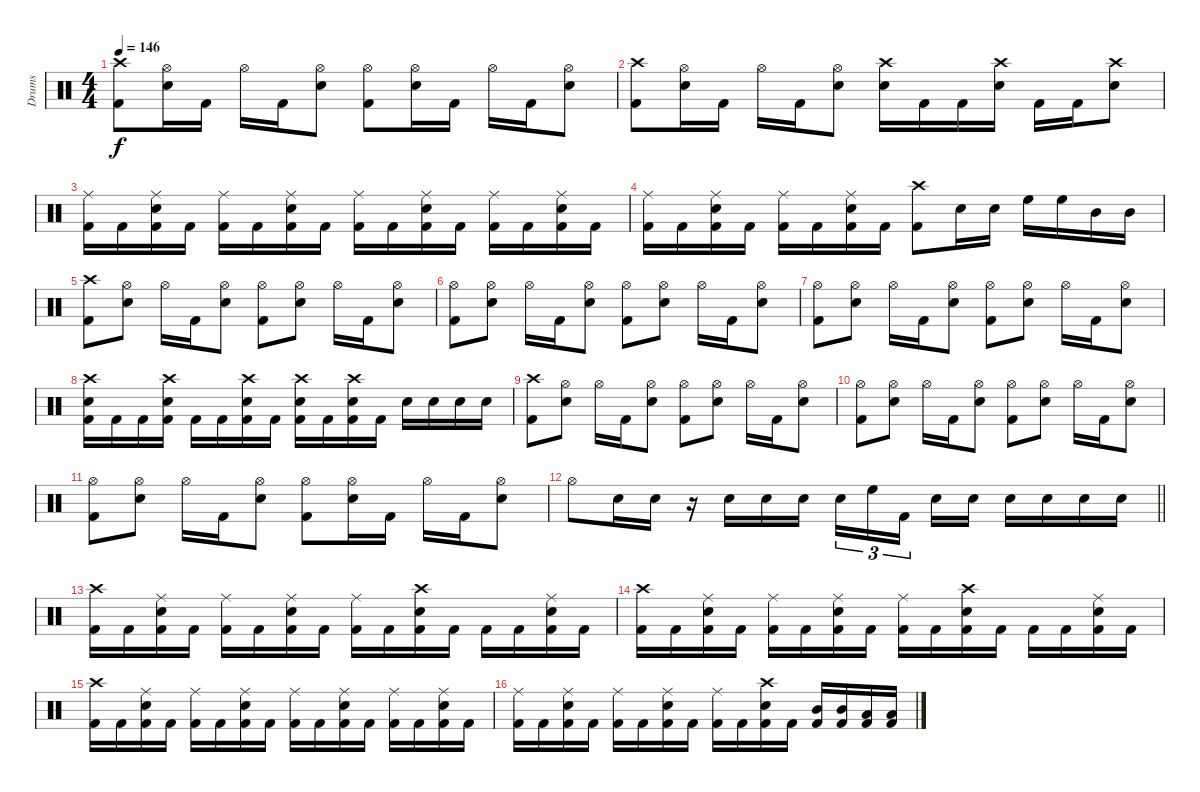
\track ("Drums" "Drums") {instrument percussion}
\staff {score}
\articulation defaults
\ts (4 4)
\tempo 146
\clef neutral
\ks c
("Crash high (hit)" "Kick (hit) 2").8{dy f} ("Hi-Hat (open)" "Snare (hit) 2").16 "Kick (hit) 2".16 "Hi-Hat (open)".16 "Kick (hit) 2".16 ("Hi-Hat (open)" "Snare (hit) 2").8 ("Hi-Hat (open)" "Kick (hit) 2").8 ("Hi-Hat (open)" "Snare (hit) 2").16 "Kick (hit) 2".16 "Hi-Hat (open)".16 "Kick (hit) 2".16 ("Hi-Hat (open)" "Snare (hit) 2").8 |
("Crash high (hit)" "Kick (hit) 2").8 ("Hi-Hat (open)" "Snare (hit) 2").16 "Kick (hit) 2".16 "Hi-Hat (open)".16 "Kick (hit) 2".16 ("Hi-Hat (open)" "Snare (hit) 2").8 ("Crash high (hit)" "Snare (hit) 2").16 "Kick (hit) 2".16 "Kick (hit) 2".16 ("Crash high (hit)" "Snare (hit) 2").16 "Kick (hit) 2".16 "Kick (hit) 2".16 ("Crash high (hit)" "Snare (hit) 2").8 |
("Ride (middle)" "Kick (hit) 2").16 "Kick (hit) 2".16 ("Ride (middle)" "Snare (hit) 2" "Kick (hit) 2").16 "Kick (hit) 2".16 ("Ride (middle)" "Kick (hit) 2").16 "Kick (hit) 2".16 ("Ride (middle)" "Snare (hit) 2" "Kick (hit) 2").16 "Kick (hit) 2".16 ("Ride (middle)" "Kick (hit) 2").16 "Kick (hit) 2".16 ("Ride (middle)" "Snare (hit) 2" "Kick (hit) 2").16 "Kick (hit) 2".16 ("Ride (middle)" "Kick (hit) 2").16 "Kick (hit) 2".16 ("Ride (middle)" "Snare (hit) 2" "Kick (hit) 2").16 "Kick (hit) 2".16 |
("Ride (middle)" "Kick (hit) 2").16 "Kick (hit) 2".16 ("Ride (middle)" "Snare (hit) 2" "Kick (hit) 2").16 "Kick (hit) 2".16 ("Ride (middle)" "Kick (hit) 2").16 "Kick (hit) 2".16 ("Ride (middle)" "Snare (hit) 2" "Kick (hit) 2").16 "Kick (hit) 2".16 ("Crash high (hit)" "Kick (hit) 2").8 "Snare (hit) 2".16 "Snare (hit) 2".16 "High Floor Tom (hit)".16 "High Floor Tom (hit)".16 "Mid Tom (hit)".16 "Mid Tom (hit)".16 |
("Crash high (hit)" "Kick (hit) 2").8 ("Hi-Hat (open)" "Snare (hit) 2").8 "Hi-Hat (open)".16 "Kick (hit) 2".16 ("Hi-Hat (open)" "Snare (hit) 2").8 ("Hi-Hat (open)" "Kick (hit) 2").8 ("Hi-Hat (open)" "Snare (hit) 2").8 "Hi-Hat (open)".16 "Kick (hit) 2".16 ("Hi-Hat (open)" "Snare (hit) 2").8 |
("Hi-Hat (open)" "Kick (hit) 2").8 ("Hi-Hat (open)" "Snare (hit) 2").8 "Hi-Hat (open)".16 "Kick (hit) 2".16 ("Hi-Hat (open)" "Snare (hit) 2").8 ("Hi-Hat (open)" "Kick (hit) 2").8 ("Hi-Hat (open)" "Snare (hit) 2").8 "Hi-Hat (open)".16 "Kick (hit) 2".16 ("Hi-Hat (open)" "Snare (hit) 2").8 |
("Hi-Hat (open)" "Kick (hit) 2").8 ("Hi-Hat (open)" "Snare (hit) 2").8 "Hi-Hat (open)".16 "Kick (hit) 2".16 ("Hi-Hat (open)" "Snare (hit) 2").8 ("Hi-Hat (open)" "Kick (hit) 2").8 ("Hi-Hat (open)" "Snare (hit) 2").8 "Hi-Hat (open)".16 "Kick (hit) 2".16 ("Hi-Hat (open)" "Snare (hit) 2").8 |
("Crash high (hit)" "Snare (hit) 2" "Kick (hit) 2").16 "Kick (hit) 2".16 "Kick (hit) 2".16 ("Crash high (hit)" "Snare (hit) 2" "Kick (hit) 2").16 "Kick (hit) 2".16 "Kick (hit) 2".16 ("Crash high (hit)" "Snare (hit) 2" "Kick (hit) 2").16 "Kick (hit) 2".16 ("Crash high (hit)" "Snare (hit) 2" "Kick (hit) 2").16 "Kick (hit) 2".16 ("Crash high (hit)" "Snare (hit) 2" "Kick (hit) 2").16 "Kick (hit) 2".16 "Snare (hit) 2".16 "Snare (hit) 2".16 "Snare (hit) 2".16 "Snare (hit) 2".16 |
("Crash high (hit)" "Kick (hit) 2").8 ("Hi-Hat (open)" "Snare (hit) 2").8 "Hi-Hat (open)".16 "Kick (hit) 2".16 ("Hi-Hat (open)" "Snare (hit) 2").8 ("Hi-Hat (open)" "Kick (hit) 2").8 ("Hi-Hat (open)" "Snare (hit) 2").8 "Hi-Hat (open)".16 "Kick (hit) 2".16 ("Hi-Hat (open)" "Snare (hit) 2").8 |
("Hi-Hat (open)" "Kick (hit) 2").8 ("Hi-Hat (open)" "Snare (hit) 2").8 "Hi-Hat (open)".16 "Kick (hit) 2".16 ("Hi-Hat (open)" "Snare (hit) 2").8 ("Hi-Hat (open)" "Kick (hit) 2").8 ("Hi-Hat (open)" "Snare (hit) 2").8 "Hi-Hat (open)".16 "Kick (hit) 2".16 ("Hi-Hat (open)" "Snare (hit) 2").8 |
("Hi-Hat (open)" "Kick (hit) 2").8 ("Hi-Hat (open)" "Snare (hit) 2").8 "Hi-Hat (open)".16 "Kick (hit) 2".16 ("Hi-Hat (open)" "Snare (hit) 2").8 ("Hi-Hat (open)" "Kick (hit) 2").8 ("Hi-Hat (open)" "Snare (hit) 2").16 "Kick (hit) 2".16 "Hi-Hat (open)".16 "Kick (hit) 2".16 ("Hi-Hat (open)" "Snare (hit) 2").8 |
\barLineRight lightlight "Hi-Hat (open)".8 "Snare (hit) 2".16 "Snare (hit) 2".16
r.16 "Snare (hit) 2".16 "Snare (hit) 2".16 "Snare (hit) 2".16 "Snare (hit) 2".16{tu (3 2)} "High Floor Tom (hit)".16{tu (3 2)} "Kick (hit) 2".16{tu (3 2)} "Snare (hit) 2".16 "Snare (hit) 2".16 "Snare (hit) 2".16 "Snare (hit) 2".16 "Snare (hit) 2".16 "Snare (hit) 2".16 |
("Crash high (hit)" "Kick (hit) 2").16 "Kick (hit) 2".16 ("Ride (middle)" "Snare (hit) 2" "Kick (hit) 2").16 "Kick (hit) 2".16 ("Ride (middle)" "Kick (hit) 2").16 "Kick (hit) 2".16 ("Ride (middle)" "Snare (hit) 2" "Kick (hit) 2").16 "Kick (hit) 2".16 ("Ride (middle)" "Kick (hit) 2").16 "Kick (hit) 2".16 ("Crash high (hit)" "Snare (hit) 2" "Kick (hit) 2").16 "Kick (hit) 2".16 "Kick (hit) 2".16 "Kick (hit) 2".16 ("Ride (middle)" "Snare (hit) 2" "Kick (hit) 2").16 "Kick (hit) 2".16 |
("Crash high (hit)" "Kick (hit) 2").16 "Kick (hit) 2".16 ("Ride (middle)" "Snare (hit) 2" "Kick (hit) 2").16 "Kick (hit) 2".16 ("Ride (middle)" "Kick (hit) 2").16 "Kick (hit) 2".16 ("Ride (middle)" "Snare (hit) 2" "Kick (hit) 2").16 "Kick (hit) 2".16 ("Ride (middle)" "Kick (hit) 2").16 "Kick (hit) 2".16 ("Crash high (hit)" "Snare (hit) 2" "Kick (hit) 2").16 "Kick (hit) 2".16 "Kick (hit) 2".16 "Kick (hit) 2".16 ("Ride (middle)" "Snare (hit) 2" "Kick (hit) 2").16 "Kick (hit) 2".16 |
("Crash high (hit)" "Kick (hit) 2").16 "Kick (hit) 2".16 ("Ride (middle)" "Snare (hit) 2" "Kick (hit) 2").16 "Kick (hit) 2".16 ("Ride (middle)" "Kick (hit) 2").16 "Kick (hit) 2".16 ("Ride (middle)" "Snare (hit) 2" "Kick (hit) 2").16 "Kick (hit) 2".16 ("Ride (middle)" "Kick (hit) 2").16 "Kick (hit) 2".16 ("Ride (middle)" "Snare (hit) 2" "Kick (hit) 2").16 "Kick (hit) 2".16 ("Ride (middle)" "Kick (hit) 2").16 "Kick (hit) 2".16 ("Ride (middle)" "Snare (hit) 2" "Kick (hit) 2").16 "Kick (hit) 2".16 |
("Ride (middle)" "Kick (hit) 2").16 "Kick (hit) 2".16 ("Ride (middle)" "Snare (hit) 2" "Kick (hit) 2").16 "Kick (hit) 2".16 ("Ride (middle)" "Kick (hit) 2").16 "Kick (hit) 2".16 ("Ride (middle)" "Snare (hit) 2" "Kick (hit) 2").16 "Kick (hit) 2".16 ("Ride (middle)" "Kick (hit) 2").16 "Kick (hit) 2".16 ("Crash high (hit)" "Snare (hit) 2" "Kick (hit) 2").16 "Kick (hit) 2".16 ("Mid Tom (hit)" "Kick (hit) 2").16 ("Mid Tom (hit)" "Kick (hit) 2").16 ("Low Floor Tom (hit)" "Kick (hit) 2").16 ("Low Floor Tom (hit)" "Kick (hit) 2").16
